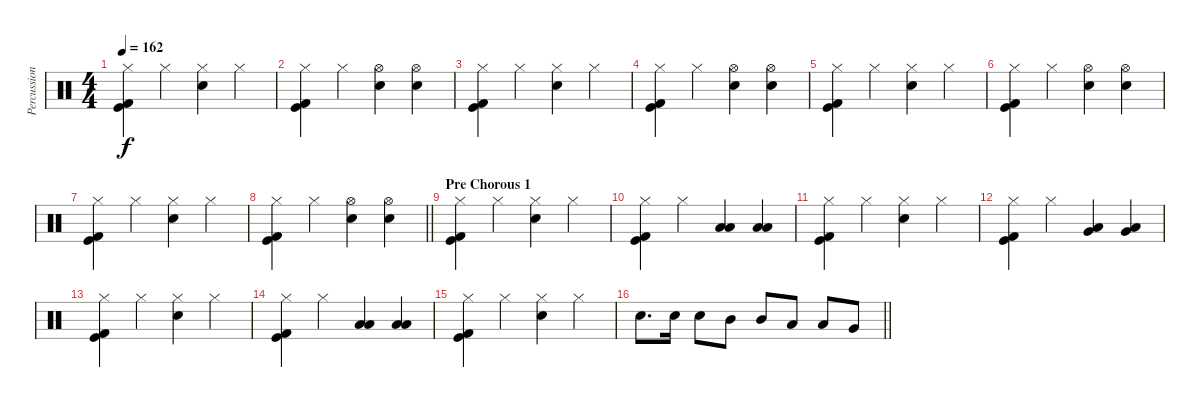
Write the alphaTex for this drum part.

\track ("Percussion" "Percussion") {instrument percussion}
\staff {score}
\articulation defaults
\ts (4 4)
\section ("" "")
\tempo 162
\clef neutral
\ks c
("Hi-Hat (closed)" "Kick (hit)" "Kick (hit) 2").4{dy f} "Hi-Hat (closed)".4 ("Hi-Hat (closed)" "Electric Snare (hit)").4 "Hi-Hat (closed)".4 |
("Hi-Hat (closed)" "Kick (hit)" "Kick (hit) 2").4 "Hi-Hat (closed)".4 ("Hi-Hat (open)" "Electric Snare (hit)").4 ("Hi-Hat (open)" "Electric Snare (hit)").4 |
("Hi-Hat (closed)" "Kick (hit)" "Kick (hit) 2").4 "Hi-Hat (closed)".4 ("Hi-Hat (closed)" "Electric Snare (hit)").4 "Hi-Hat (closed)".4 |
("Hi-Hat (closed)" "Kick (hit)" "Kick (hit) 2").4 "Hi-Hat (closed)".4 ("Hi-Hat (open)" "Electric Snare (hit)").4 ("Hi-Hat (open)" "Electric Snare (hit)").4 |
("Hi-Hat (closed)" "Kick (hit)" "Kick (hit) 2").4 "Hi-Hat (closed)".4 ("Hi-Hat (closed)" "Electric Snare (hit)").4 "Hi-Hat (closed)".4 |
("Hi-Hat (closed)" "Kick (hit)" "Kick (hit) 2").4 "Hi-Hat (closed)".4 ("Hi-Hat (open)" "Electric Snare (hit)").4 ("Hi-Hat (open)" "Electric Snare (hit)").4 |
("Hi-Hat (closed)" "Kick (hit)" "Kick (hit) 2").4 "Hi-Hat (closed)".4 ("Hi-Hat (closed)" "Electric Snare (hit)").4 "Hi-Hat (closed)".4 |
\barLineRight lightlight
("Hi-Hat (closed)" "Kick (hit)" "Kick (hit) 2").4 "Hi-Hat (closed)".4 ("Hi-Hat (open)" "Electric Snare (hit)").4 ("Hi-Hat (open)" "Electric Snare (hit)").4 |
\section ("" "Pre Chorous 1")
("Hi-Hat (closed)" "Kick (hit)" "Kick (hit) 2").4 "Hi-Hat (closed)".4 ("Hi-Hat (closed)" "Electric Snare (hit)").4 "Hi-Hat (closed)".4 |
("Hi-Hat (closed)" "Kick (hit)" "Kick (hit) 2").4 "Hi-Hat (closed)".4 ("Low Tom (hit)" "Low Floor Tom (hit)").4 ("Low Tom (hit)" "Low Floor Tom (hit)").4 |
("Hi-Hat (closed)" "Kick (hit)" "Kick (hit) 2").4 "Hi-Hat (closed)".4 ("Hi-Hat (closed)" "Electric Snare (hit)").4 "Hi-Hat (closed)".4 |
("Hi-Hat (closed)" "Kick (hit)" "Kick (hit) 2").4 "Hi-Hat (closed)".4 ("Very Low Tom (hit)" "Low Floor Tom (hit)").4 ("Very Low Tom (hit)" "Low Floor Tom (hit)").4 |
("Hi-Hat (closed)" "Kick (hit)" "Kick (hit) 2").4 "Hi-Hat (closed)".4 ("Hi-Hat (closed)" "Electric Snare (hit)").4 "Hi-Hat (closed)".4 |
("Hi-Hat (closed)" "Kick (hit)" "Kick (hit) 2").4 "Hi-Hat (closed)".4 ("Low Tom (hit)" "Low Floor Tom (hit)").4 ("Low Tom (hit)" "Low Floor Tom (hit)").4 |
("Hi-Hat (closed)" "Kick (hit)" "Kick (hit) 2").4 "Hi-Hat (closed)".4 ("Hi-Hat (closed)" "Electric Snare (hit)").4 "Hi-Hat (closed)".4 |
\barLineRight lightlight "Electric Snare (hit)".8{d} "Electric Snare (hit)".16 "Electric Snare (hit)".8 "Mid Tom (hit)".8 "Mid Tom (hit)".8 "Low Tom (hit)".8 "Low Tom (hit)".8 "Very Low Tom (hit)".8
